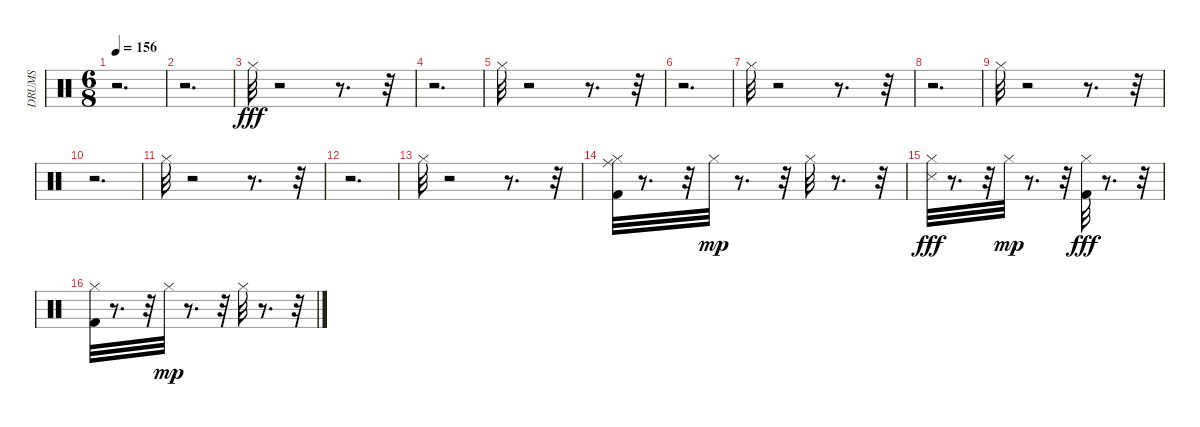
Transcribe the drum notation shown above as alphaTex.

\track ("DRUMS" "DRUMS") {instrument percussion}
\staff {score}
\articulation defaults
\ts (6 8)
\tempo 156
\clef neutral
\ks c
r.2{d dy fff} |
r.2{d} |
"Hi-Hat (closed)".32 r.2 r.8{d} r.32 |
r.2{d} |
"Hi-Hat (closed)".32 r.2 r.8{d} r.32 |
r.2{d} |
"Hi-Hat (closed)".32 r.2 r.8{d} r.32 |
r.2{d} |
"Hi-Hat (closed)".32 r.2 r.8{d} r.32 |
r.2{d} |
"Hi-Hat (closed)".32 r.2 r.8{d} r.32 |
r.2{d} |
"Hi-Hat (closed)".32 r.2 r.8{d} r.32 |
("Ride (middle)" "Hi-Hat (closed)" "Kick (hit) 2").32 r.8{d} r.32 "Hi-Hat (closed)".32{dy mp} r.8{d} r.32 "Hi-Hat (closed)".32 r.8{d} r.32 |
("Snare (side stick) 3" "Hi-Hat (closed)").32{dy fff} r.8{d} r.32 "Hi-Hat (closed)".32{dy mp} r.8{d} r.32 ("Hi-Hat (closed)" "Kick (hit) 2").32{dy fff} r.8{d} r.32 |
("Hi-Hat (closed)" "Kick (hit) 2").32 r.8{d} r.32 "Hi-Hat (closed)".32{dy mp} r.8{d} r.32 "Hi-Hat (closed)".32 r.8{d} r.32
